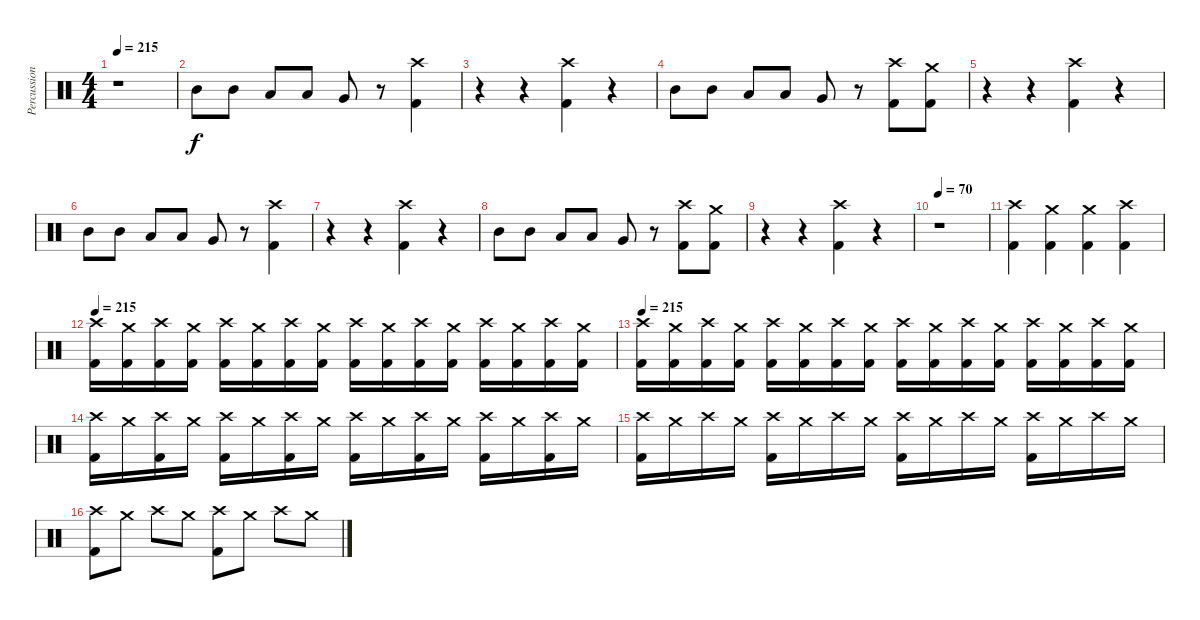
\track ("Percussion" "Percussion") {instrument percussion}
\staff {score}
\articulation defaults
\ts (4 4)
\tempo 215
\clef neutral
\ks c
r.1{dy f} |
"Mid Tom (hit)".8 "Mid Tom (hit)".8 "Low Tom (hit)".8 "Low Tom (hit)".8 "Very Low Tom (hit)".8 r.8 ("Crash high (hit)" "Kick (hit) 2").4 |
r.4 r.4 ("Crash high (hit)" "Kick (hit) 2").4 r.4 |
"Mid Tom (hit)".8 "Mid Tom (hit)".8 "Low Tom (hit)".8 "Low Tom (hit)".8 "Very Low Tom (hit)".8 r.8 ("Crash high (hit)" "Kick (hit) 2").8 ("Crash medium (hit)" "Kick (hit) 2").8 |
r.4 r.4 ("Crash high (hit)" "Kick (hit) 2").4 r.4 |
"Mid Tom (hit)".8 "Mid Tom (hit)".8 "Low Tom (hit)".8 "Low Tom (hit)".8 "Very Low Tom (hit)".8 r.8 ("Crash high (hit)" "Kick (hit) 2").4 |
r.4 r.4 ("Crash high (hit)" "Kick (hit) 2").4 r.4 |
"Mid Tom (hit)".8 "Mid Tom (hit)".8 "Low Tom (hit)".8 "Low Tom (hit)".8 "Very Low Tom (hit)".8 r.8 ("Crash high (hit)" "Kick (hit) 2").8 ("Crash medium (hit)" "Kick (hit) 2").8 |
r.4 r.4 ("Crash high (hit)" "Kick (hit) 2").4 r.4 |
\tempo 70
r.1 |
("Crash high (hit)" "Kick (hit) 2").4 ("Crash medium (hit)" "Kick (hit) 2").4 ("Crash medium (hit)" "Kick (hit) 2").4 ("Crash high (hit)" "Kick (hit) 2").4 |
\tempo 215
("Crash high (hit)" "Kick (hit) 2").16 ("Crash medium (hit)" "Kick (hit) 2").16 ("Crash high (hit)" "Kick (hit) 2").16 ("Crash medium (hit)" "Kick (hit) 2").16 ("Crash high (hit)" "Kick (hit) 2").16 ("Crash medium (hit)" "Kick (hit) 2").16 ("Crash high (hit)" "Kick (hit) 2").16 ("Crash medium (hit)" "Kick (hit) 2").16 ("Crash high (hit)" "Kick (hit) 2").16 ("Crash medium (hit)" "Kick (hit) 2").16 ("Crash high (hit)" "Kick (hit) 2").16 ("Crash medium (hit)" "Kick (hit) 2").16 ("Crash high (hit)" "Kick (hit) 2").16 ("Crash medium (hit)" "Kick (hit) 2").16 ("Crash high (hit)" "Kick (hit) 2").16 ("Crash medium (hit)" "Kick (hit) 2").16 |
\tempo 215
("Crash high (hit)" "Kick (hit) 2").16 ("Crash medium (hit)" "Kick (hit) 2").16 ("Crash high (hit)" "Kick (hit) 2").16 ("Crash medium (hit)" "Kick (hit) 2").16 ("Crash high (hit)" "Kick (hit) 2").16 ("Crash medium (hit)" "Kick (hit) 2").16 ("Crash high (hit)" "Kick (hit) 2").16 ("Crash medium (hit)" "Kick (hit) 2").16 ("Crash high (hit)" "Kick (hit) 2").16 ("Crash medium (hit)" "Kick (hit) 2").16 ("Crash high (hit)" "Kick (hit) 2").16 ("Crash medium (hit)" "Kick (hit) 2").16 ("Crash high (hit)" "Kick (hit) 2").16 ("Crash medium (hit)" "Kick (hit) 2").16 ("Crash high (hit)" "Kick (hit) 2").16 ("Crash medium (hit)" "Kick (hit) 2").16 |
("Crash high (hit)" "Kick (hit) 2").16 "Crash medium (hit)".16 ("Crash high (hit)" "Kick (hit) 2").16 "Crash medium (hit)".16 ("Crash high (hit)" "Kick (hit) 2").16 "Crash medium (hit)".16 ("Crash high (hit)" "Kick (hit) 2").16 "Crash medium (hit)".16 ("Crash high (hit)" "Kick (hit) 2").16 "Crash medium (hit)".16 ("Crash high (hit)" "Kick (hit) 2").16 "Crash medium (hit)".16 ("Crash high (hit)" "Kick (hit) 2").16 "Crash medium (hit)".16 ("Crash high (hit)" "Kick (hit) 2").16 "Crash medium (hit)".16 |
("Crash high (hit)" "Kick (hit) 2").16 "Crash medium (hit)".16 "Crash high (hit)".16 "Crash medium (hit)".16 ("Crash high (hit)" "Kick (hit) 2").16 "Crash medium (hit)".16 "Crash high (hit)".16 "Crash medium (hit)".16 ("Crash high (hit)" "Kick (hit) 2").16 "Crash medium (hit)".16 "Crash high (hit)".16 "Crash medium (hit)".16 ("Crash high (hit)" "Kick (hit) 2").16 "Crash medium (hit)".16 "Crash high (hit)".16 "Crash medium (hit)".16 |
("Crash high (hit)" "Kick (hit) 2").8 "Crash medium (hit)".8 "Crash high (hit)".8 "Crash medium (hit)".8 ("Crash high (hit)" "Kick (hit) 2").8 "Crash medium (hit)".8 "Crash high (hit)".8 "Crash medium (hit)".8
